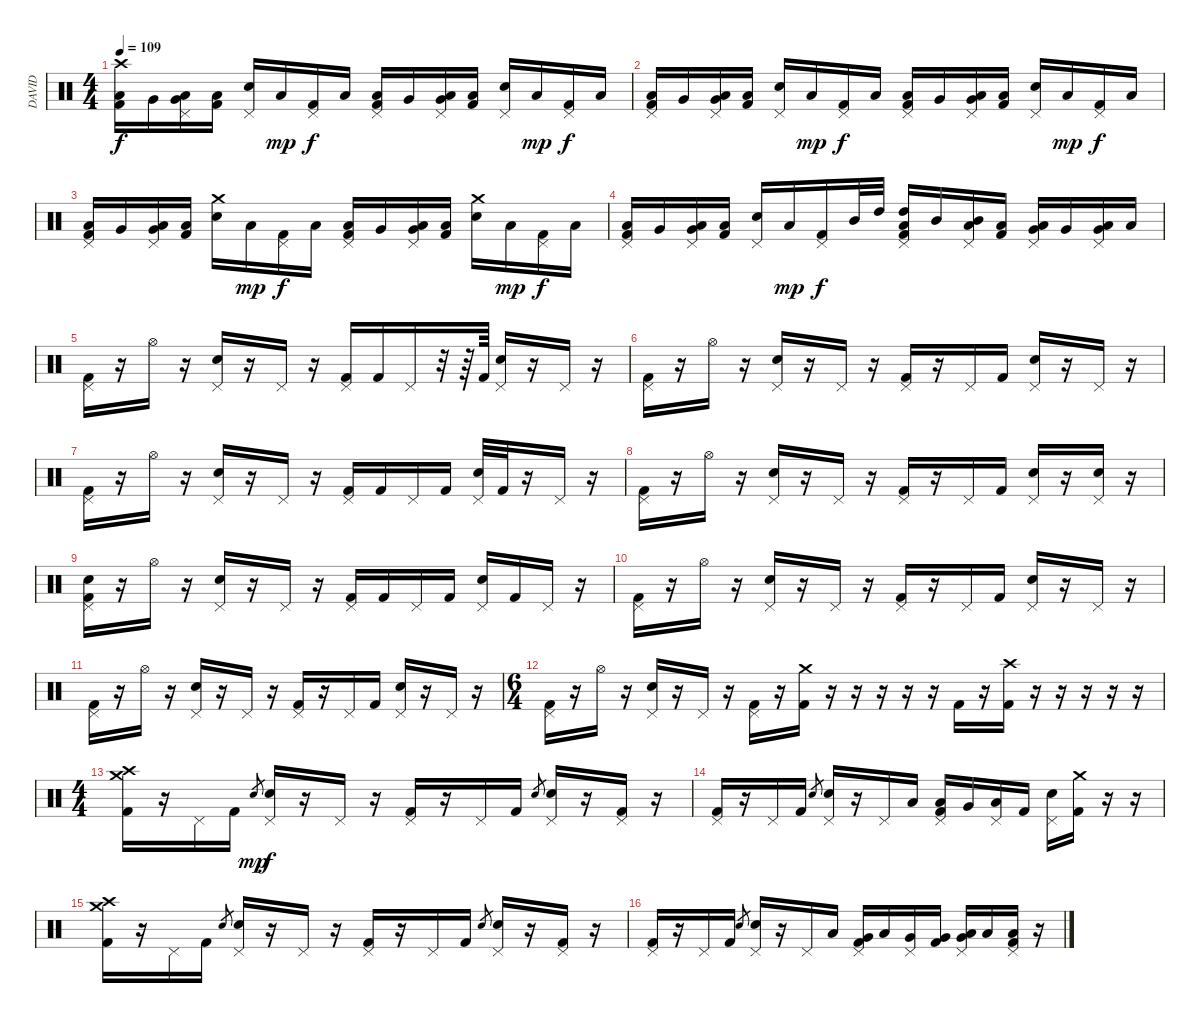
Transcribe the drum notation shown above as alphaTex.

\track ("DAVID" "DAVID") {instrument percussion}
\staff {score}
\articulation defaults
\ts (4 4)
\tempo 109
\clef neutral
\ks c
("Crash high (hit)" "Low Tom (hit)" "Kick (hit) 2").16{dy f} "Very Low Tom (hit)".16 ("Pedal Hi-Hat (hit)" "Very Low Tom (hit)" "Low Floor Tom (hit)").16 ("Low Floor Tom (hit)" "Kick (hit) 2").16 ("Pedal Hi-Hat (hit)" "Snare (hit) 2").16 "Low Floor Tom (hit)".16{dy mp} ("Pedal Hi-Hat (hit)" "Kick (hit) 2").16{dy f} "Low Tom (hit)".16 ("Pedal Hi-Hat (hit)" "Low Tom (hit)" "Kick (hit) 2").16 "Very Low Tom (hit)".16 ("Pedal Hi-Hat (hit)" "Very Low Tom (hit)" "Low Floor Tom (hit)").16 ("Low Floor Tom (hit)" "Kick (hit) 2").16 ("Pedal Hi-Hat (hit)" "Snare (hit) 2").16 "Low Floor Tom (hit)".16{dy mp} ("Pedal Hi-Hat (hit)" "Kick (hit) 2").16{dy f} "Low Tom (hit)".16 |
("Pedal Hi-Hat (hit)" "Low Tom (hit)" "Kick (hit) 2").16 "Very Low Tom (hit)".16 ("Pedal Hi-Hat (hit)" "Very Low Tom (hit)" "Low Floor Tom (hit)").16 ("Low Floor Tom (hit)" "Kick (hit) 2").16 ("Pedal Hi-Hat (hit)" "Snare (hit) 2").16 "Low Floor Tom (hit)".16{dy mp} ("Pedal Hi-Hat (hit)" "Kick (hit) 2").16{dy f} "Low Tom (hit)".16 ("Pedal Hi-Hat (hit)" "Low Tom (hit)" "Kick (hit) 2").16 "Very Low Tom (hit)".16 ("Pedal Hi-Hat (hit)" "Very Low Tom (hit)" "Low Floor Tom (hit)").16 ("Low Floor Tom (hit)" "Kick (hit) 2").16 ("Pedal Hi-Hat (hit)" "Snare (hit) 2").16 "Low Floor Tom (hit)".16{dy mp} ("Pedal Hi-Hat (hit)" "Kick (hit) 2").16{dy f} "Low Tom (hit)".16 |
("Pedal Hi-Hat (hit)" "Low Tom (hit)" "Kick (hit) 2").16 "Very Low Tom (hit)".16 ("Pedal Hi-Hat (hit)" "Very Low Tom (hit)" "Low Floor Tom (hit)").16 ("Low Floor Tom (hit)" "Kick (hit) 2").16 ("Crash medium (hit)" "Snare (hit) 2").16 "Low Floor Tom (hit)".16{dy mp} ("Pedal Hi-Hat (hit)" "Kick (hit) 2").16{dy f} "Low Tom (hit)".16 ("Pedal Hi-Hat (hit)" "Low Tom (hit)" "Kick (hit) 2").16 "Very Low Tom (hit)".16 ("Pedal Hi-Hat (hit)" "Very Low Tom (hit)" "Low Floor Tom (hit)").16 ("Low Floor Tom (hit)" "Kick (hit) 2").16 ("Crash medium (hit)" "Snare (hit) 2").16 "Low Floor Tom (hit)".16{dy mp} ("Pedal Hi-Hat (hit)" "Kick (hit) 2").16{dy f} "Low Tom (hit)".16 |
("Pedal Hi-Hat (hit)" "Low Tom (hit)" "Kick (hit) 2").16 "Very Low Tom (hit)".16 ("Pedal Hi-Hat (hit)" "Very Low Tom (hit)" "Low Floor Tom (hit)").16 ("Low Floor Tom (hit)" "Kick (hit) 2").16 ("Pedal Hi-Hat (hit)" "Snare (hit) 2").16 "Low Floor Tom (hit)".16{dy mp} ("Pedal Hi-Hat (hit)" "Kick (hit) 2").16{dy f} "Mid Tom (hit)".32 "High Tom (hit)".32 ("Pedal Hi-Hat (hit)" "High Tom (hit)" "Low Tom (hit)" "Kick (hit) 2").16 "Mid Tom (hit)".16 ("Pedal Hi-Hat (hit)" "Mid Tom (hit)" "Low Tom (hit)").16 ("Low Tom (hit)" "Kick (hit) 2").16 ("Pedal Hi-Hat (hit)" "Very Low Tom (hit)" "Low Tom (hit)").16 "Very Low Tom (hit)".16 ("Pedal Hi-Hat (hit)" "Very Low Tom (hit)" "Low Floor Tom (hit)").16 "Low Floor Tom (hit)".16 |
("Pedal Hi-Hat (hit)" "Kick (hit) 2").16 r.16 "Hi-Hat (open)".16 r.16 ("Pedal Hi-Hat (hit)" "Snare (hit) 2").16 r.16 "Pedal Hi-Hat (hit)".16 r.16 ("Pedal Hi-Hat (hit)" "Kick (hit) 2").16 "Kick (hit) 2".16 "Pedal Hi-Hat (hit)".16 r.32 r.64 "Kick (hit) 2".64 ("Pedal Hi-Hat (hit)" "Snare (hit) 2").16 r.16 "Pedal Hi-Hat (hit)".16 r.16 |
("Pedal Hi-Hat (hit)" "Kick (hit) 2").16 r.16 "Hi-Hat (open)".16 r.16 ("Pedal Hi-Hat (hit)" "Snare (hit) 2").16 r.16 "Pedal Hi-Hat (hit)".16 r.16 ("Pedal Hi-Hat (hit)" "Kick (hit) 2").16 r.16 "Pedal Hi-Hat (hit)".16 "Kick (hit) 2".16 ("Pedal Hi-Hat (hit)" "Snare (hit) 2").16 r.16 "Pedal Hi-Hat (hit)".16 r.16 |
("Pedal Hi-Hat (hit)" "Kick (hit) 2").16 r.16 "Hi-Hat (open)".16 r.16 ("Pedal Hi-Hat (hit)" "Snare (hit) 2").16 r.16 "Pedal Hi-Hat (hit)".16 r.16 ("Pedal Hi-Hat (hit)" "Kick (hit) 2").16 "Kick (hit) 2".16 "Pedal Hi-Hat (hit)".16 "Kick (hit) 2".16 ("Pedal Hi-Hat (hit)" "Snare (hit) 2").32 "Kick (hit) 2".32 r.16 "Pedal Hi-Hat (hit)".16 r.16 |
("Pedal Hi-Hat (hit)" "Kick (hit) 2").16 r.16 "Hi-Hat (open)".16 r.16 ("Pedal Hi-Hat (hit)" "Snare (hit) 2").16 r.16 "Pedal Hi-Hat (hit)".16 r.16 ("Pedal Hi-Hat (hit)" "Kick (hit) 2").16 r.16 "Pedal Hi-Hat (hit)".16 "Kick (hit) 2".16 ("Pedal Hi-Hat (hit)" "Snare (hit) 2").16 r.16 ("Pedal Hi-Hat (hit)" "Snare (hit) 2").16 r.16 |
("Pedal Hi-Hat (hit)" "Snare (hit) 2" "Kick (hit) 2").16 r.16 "Hi-Hat (open)".16 r.16 ("Pedal Hi-Hat (hit)" "Snare (hit) 2").16 r.16 "Pedal Hi-Hat (hit)".16 r.16 ("Pedal Hi-Hat (hit)" "Kick (hit) 2").16 "Kick (hit) 2".16 "Pedal Hi-Hat (hit)".16 "Kick (hit) 2".16 ("Pedal Hi-Hat (hit)" "Snare (hit) 2").16 "Kick (hit) 2".16 "Pedal Hi-Hat (hit)".16 r.16 |
("Pedal Hi-Hat (hit)" "Kick (hit) 2").16 r.16 "Hi-Hat (open)".16 r.16 ("Pedal Hi-Hat (hit)" "Snare (hit) 2").16 r.16 "Pedal Hi-Hat (hit)".16 r.16 ("Pedal Hi-Hat (hit)" "Kick (hit) 2").16 r.16 "Pedal Hi-Hat (hit)".16 "Kick (hit) 2".16 ("Pedal Hi-Hat (hit)" "Snare (hit) 2").16 r.16 "Pedal Hi-Hat (hit)".16 r.16 |
("Pedal Hi-Hat (hit)" "Kick (hit) 2").16 r.16 "Hi-Hat (open)".16 r.16 ("Pedal Hi-Hat (hit)" "Snare (hit) 2").16 r.16 "Pedal Hi-Hat (hit)".16 r.16 ("Pedal Hi-Hat (hit)" "Kick (hit) 2").16 r.16 "Pedal Hi-Hat (hit)".16 "Kick (hit) 2".16 ("Pedal Hi-Hat (hit)" "Snare (hit) 2").16 r.16 "Pedal Hi-Hat (hit)".16 r.16 |
\ts (6 4)
("Pedal Hi-Hat (hit)" "Kick (hit) 2").16 r.16 "Hi-Hat (open)".16 r.16 ("Pedal Hi-Hat (hit)" "Snare (hit) 2").16 r.16 "Pedal Hi-Hat (hit)".16 r.16 ("Pedal Hi-Hat (hit)" "Kick (hit) 2").16 r.16 ("Crash medium (hit)" "Kick (hit) 2").16 r.16 r.16 r.16 r.16 r.16 "Kick (hit) 2".16 r.16 ("Crash high (hit)" "Kick (hit) 2").16 r.16 r.16 r.16 r.16 r.16 |
\ts (4 4)
("Crash medium (hit)" "Crash high (hit)" "Kick (hit) 2").16 r.16 "Pedal Hi-Hat (hit)".16 "Kick (hit) 2".16 "Snare (hit) 2".8{gr dy mp} ("Pedal Hi-Hat (hit)" "Snare (hit) 2").16{dy f} r.16 "Pedal Hi-Hat (hit)".16 r.16 ("Pedal Hi-Hat (hit)" "Kick (hit) 2").16 r.16 "Pedal Hi-Hat (hit)".16 "Kick (hit) 2".16 "Snare (hit) 2".8{gr} ("Pedal Hi-Hat (hit)" "Snare (hit) 2").16 r.16 ("Pedal Hi-Hat (hit)" "Kick (hit) 2").16 r.16 |
("Pedal Hi-Hat (hit)" "Kick (hit) 2").16 r.16 "Pedal Hi-Hat (hit)".16 "Kick (hit) 2".16 "Snare (hit) 2".8{gr} ("Pedal Hi-Hat (hit)" "Snare (hit) 2").16 r.16 "Pedal Hi-Hat (hit)".16 "Low Tom (hit)".16 ("Pedal Hi-Hat (hit)" "Low Tom (hit)" "Kick (hit) 2").16 "Very Low Tom (hit)".16 ("Pedal Hi-Hat (hit)" "Low Floor Tom (hit)").16 "Kick (hit) 2".16 ("Pedal Hi-Hat (hit)" "Snare (hit) 2").16 ("Crash medium (hit)" "Kick (hit) 2").16 r.16 r.16 |
("Crash medium (hit)" "Crash high (hit)" "Kick (hit) 2").16 r.16 "Pedal Hi-Hat (hit)".16 "Kick (hit) 2".16 "Snare (hit) 2".8{gr} ("Pedal Hi-Hat (hit)" "Snare (hit) 2").16 r.16 "Pedal Hi-Hat (hit)".16 r.16 ("Pedal Hi-Hat (hit)" "Kick (hit) 2").16 r.16 "Pedal Hi-Hat (hit)".16 "Kick (hit) 2".16 "Snare (hit) 2".8{gr} ("Pedal Hi-Hat (hit)" "Snare (hit) 2").16 r.16 ("Pedal Hi-Hat (hit)" "Kick (hit) 2").16 r.16 |
("Pedal Hi-Hat (hit)" "Kick (hit) 2").16 r.16 "Pedal Hi-Hat (hit)".16 "Kick (hit) 2".16 "Snare (hit) 2".8{gr} ("Pedal Hi-Hat (hit)" "Snare (hit) 2").16 r.16 "Pedal Hi-Hat (hit)".16 "Low Tom (hit)".16 ("Pedal Hi-Hat (hit)" "Very Low Tom (hit)" "Kick (hit) 2").16 "Low Tom (hit)".16 ("Pedal Hi-Hat (hit)" "Very Low Tom (hit)").16 ("Very Low Tom (hit)" "Kick (hit) 2").16 ("Pedal Hi-Hat (hit)" "Very Low Tom (hit)" "Low Floor Tom (hit)").16 "Low Floor Tom (hit)".16 ("Pedal Hi-Hat (hit)" "Low Floor Tom (hit)" "Kick (hit) 2").16 r.16
